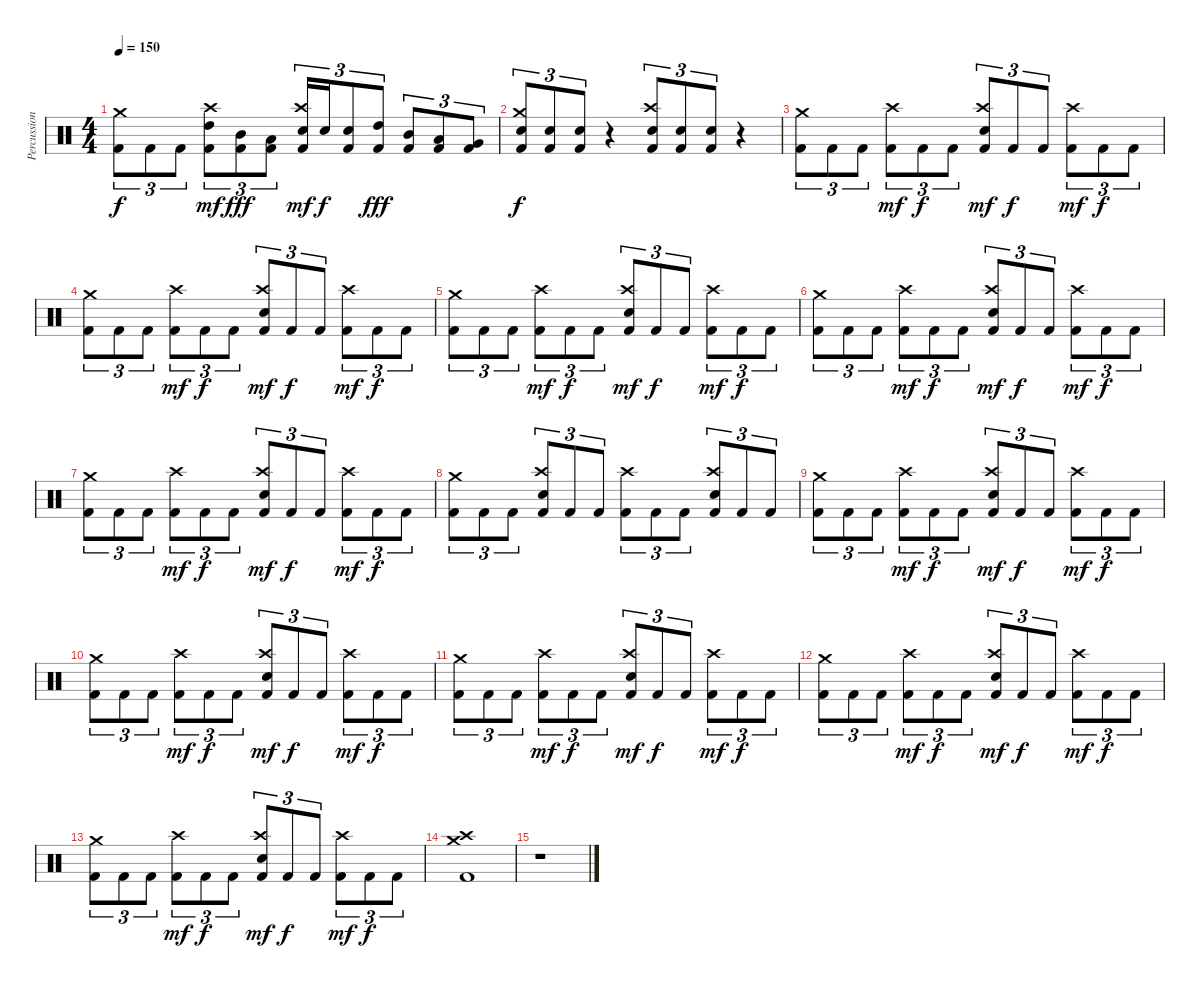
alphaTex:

\track ("Percussion" "Percussion") {instrument percussion}
\staff {score}
\articulation defaults
\ts (4 4)
\tempo 150
\clef neutral
\ks c
("Kick (hit) 2" "Crash medium (hit)").8{tu (3 2) dy f} "Kick (hit) 2".8{tu (3 2)} "Kick (hit) 2".8{tu (3 2)} ("Kick (hit) 2" "High Tom (hit)" "Crash high (hit)").8{tu (3 2) dy mf} ("Kick (hit) 2" "Mid Tom (hit)").8{tu (3 2) dy fff} ("Kick (hit) 2" "Low Tom (hit)").8{tu (3 2)} ("Kick (hit) 2" "Electric Snare (hit)" "Crash high (hit)").16{tu (3 2) dy mf} "Electric Snare (hit)".16{tu (3 2) dy f} ("Kick (hit) 2" "Electric Snare (hit)").8{tu (3 2)} ("Kick (hit) 2" "High Tom (hit)").8{tu (3 2) dy fff} ("Kick (hit) 2" "Mid Tom (hit)").8{tu (3 2)} ("Kick (hit) 2" "Low Tom (hit)").8{tu (3 2)} ("Kick (hit) 2" "Very Low Tom (hit)").8{tu (3 2)} |
("Kick (hit) 2" "Electric Snare (hit)" "Crash medium (hit)").8{tu (3 2) dy f} ("Kick (hit) 2" "Electric Snare (hit)").8{tu (3 2)} ("Kick (hit) 2" "Electric Snare (hit)").8{tu (3 2)} r.4 ("Kick (hit) 2" "Electric Snare (hit)" "Crash high (hit)").8{tu (3 2)} ("Kick (hit) 2" "Electric Snare (hit)").8{tu (3 2)} ("Kick (hit) 2" "Electric Snare (hit)").8{tu (3 2)} r.4 |
("Kick (hit) 2" "Crash medium (hit)").8{tu (3 2)} "Kick (hit) 2".8{tu (3 2)} "Kick (hit) 2".8{tu (3 2)} ("Kick (hit) 2" "Crash high (hit)").8{tu (3 2) dy mf} "Kick (hit) 2".8{tu (3 2) dy f} "Kick (hit) 2".8{tu (3 2)} ("Kick (hit) 2" "Electric Snare (hit)" "Crash high (hit)").8{tu (3 2) dy mf} "Kick (hit) 2".8{tu (3 2) dy f} "Kick (hit) 2".8{tu (3 2)} ("Kick (hit) 2" "Crash high (hit)").8{tu (3 2) dy mf} "Kick (hit) 2".8{tu (3 2) dy f} "Kick (hit) 2".8{tu (3 2)} |
("Kick (hit) 2" "Crash medium (hit)").8{tu (3 2)} "Kick (hit) 2".8{tu (3 2)} "Kick (hit) 2".8{tu (3 2)} ("Kick (hit) 2" "Crash high (hit)").8{tu (3 2) dy mf} "Kick (hit) 2".8{tu (3 2) dy f} "Kick (hit) 2".8{tu (3 2)} ("Kick (hit) 2" "Electric Snare (hit)" "Crash high (hit)").8{tu (3 2) dy mf} "Kick (hit) 2".8{tu (3 2) dy f} "Kick (hit) 2".8{tu (3 2)} ("Kick (hit) 2" "Crash high (hit)").8{tu (3 2) dy mf} "Kick (hit) 2".8{tu (3 2) dy f} "Kick (hit) 2".8{tu (3 2)} |
("Kick (hit) 2" "Crash medium (hit)").8{tu (3 2)} "Kick (hit) 2".8{tu (3 2)} "Kick (hit) 2".8{tu (3 2)} ("Kick (hit) 2" "Crash high (hit)").8{tu (3 2) dy mf} "Kick (hit) 2".8{tu (3 2) dy f} "Kick (hit) 2".8{tu (3 2)} ("Kick (hit) 2" "Electric Snare (hit)" "Crash high (hit)").8{tu (3 2) dy mf} "Kick (hit) 2".8{tu (3 2) dy f} "Kick (hit) 2".8{tu (3 2)} ("Kick (hit) 2" "Crash high (hit)").8{tu (3 2) dy mf} "Kick (hit) 2".8{tu (3 2) dy f} "Kick (hit) 2".8{tu (3 2)} |
("Kick (hit) 2" "Crash medium (hit)").8{tu (3 2)} "Kick (hit) 2".8{tu (3 2)} "Kick (hit) 2".8{tu (3 2)} ("Kick (hit) 2" "Crash high (hit)").8{tu (3 2) dy mf} "Kick (hit) 2".8{tu (3 2) dy f} "Kick (hit) 2".8{tu (3 2)} ("Kick (hit) 2" "Electric Snare (hit)" "Crash high (hit)").8{tu (3 2) dy mf} "Kick (hit) 2".8{tu (3 2) dy f} "Kick (hit) 2".8{tu (3 2)} ("Kick (hit) 2" "Crash high (hit)").8{tu (3 2) dy mf} "Kick (hit) 2".8{tu (3 2) dy f} "Kick (hit) 2".8{tu (3 2)} |
("Kick (hit) 2" "Crash medium (hit)").8{tu (3 2)} "Kick (hit) 2".8{tu (3 2)} "Kick (hit) 2".8{tu (3 2)} ("Kick (hit) 2" "Crash high (hit)").8{tu (3 2) dy mf} "Kick (hit) 2".8{tu (3 2) dy f} "Kick (hit) 2".8{tu (3 2)} ("Kick (hit) 2" "Electric Snare (hit)" "Crash high (hit)").8{tu (3 2) dy mf} "Kick (hit) 2".8{tu (3 2) dy f} "Kick (hit) 2".8{tu (3 2)} ("Kick (hit) 2" "Crash high (hit)").8{tu (3 2) dy mf} "Kick (hit) 2".8{tu (3 2) dy f} "Kick (hit) 2".8{tu (3 2)} |
("Kick (hit) 2" "Crash medium (hit)").8{tu (3 2)} "Kick (hit) 2".8{tu (3 2)} "Kick (hit) 2".8{tu (3 2)} ("Kick (hit) 2" "Electric Snare (hit)" "Crash high (hit)").8{tu (3 2)} "Kick (hit) 2".8{tu (3 2)} "Kick (hit) 2".8{tu (3 2)} ("Kick (hit) 2" "Crash high (hit)").8{tu (3 2)} "Kick (hit) 2".8{tu (3 2)} "Kick (hit) 2".8{tu (3 2)} ("Kick (hit) 2" "Electric Snare (hit)" "Crash high (hit)").8{tu (3 2)} "Kick (hit) 2".8{tu (3 2)} "Kick (hit) 2".8{tu (3 2)} |
("Kick (hit) 2" "Crash medium (hit)").8{tu (3 2)} "Kick (hit) 2".8{tu (3 2)} "Kick (hit) 2".8{tu (3 2)} ("Kick (hit) 2" "Crash high (hit)").8{tu (3 2) dy mf} "Kick (hit) 2".8{tu (3 2) dy f} "Kick (hit) 2".8{tu (3 2)} ("Kick (hit) 2" "Electric Snare (hit)" "Crash high (hit)").8{tu (3 2) dy mf} "Kick (hit) 2".8{tu (3 2) dy f} "Kick (hit) 2".8{tu (3 2)} ("Kick (hit) 2" "Crash high (hit)").8{tu (3 2) dy mf} "Kick (hit) 2".8{tu (3 2) dy f} "Kick (hit) 2".8{tu (3 2)} |
("Kick (hit) 2" "Crash medium (hit)").8{tu (3 2)} "Kick (hit) 2".8{tu (3 2)} "Kick (hit) 2".8{tu (3 2)} ("Kick (hit) 2" "Crash high (hit)").8{tu (3 2) dy mf} "Kick (hit) 2".8{tu (3 2) dy f} "Kick (hit) 2".8{tu (3 2)} ("Kick (hit) 2" "Electric Snare (hit)" "Crash high (hit)").8{tu (3 2) dy mf} "Kick (hit) 2".8{tu (3 2) dy f} "Kick (hit) 2".8{tu (3 2)} ("Kick (hit) 2" "Crash high (hit)").8{tu (3 2) dy mf} "Kick (hit) 2".8{tu (3 2) dy f} "Kick (hit) 2".8{tu (3 2)} |
("Kick (hit) 2" "Crash medium (hit)").8{tu (3 2)} "Kick (hit) 2".8{tu (3 2)} "Kick (hit) 2".8{tu (3 2)} ("Kick (hit) 2" "Crash high (hit)").8{tu (3 2) dy mf} "Kick (hit) 2".8{tu (3 2) dy f} "Kick (hit) 2".8{tu (3 2)} ("Kick (hit) 2" "Electric Snare (hit)" "Crash high (hit)").8{tu (3 2) dy mf} "Kick (hit) 2".8{tu (3 2) dy f} "Kick (hit) 2".8{tu (3 2)} ("Kick (hit) 2" "Crash high (hit)").8{tu (3 2) dy mf} "Kick (hit) 2".8{tu (3 2) dy f} "Kick (hit) 2".8{tu (3 2)} |
("Kick (hit) 2" "Crash medium (hit)").8{tu (3 2)} "Kick (hit) 2".8{tu (3 2)} "Kick (hit) 2".8{tu (3 2)} ("Kick (hit) 2" "Crash high (hit)").8{tu (3 2) dy mf} "Kick (hit) 2".8{tu (3 2) dy f} "Kick (hit) 2".8{tu (3 2)} ("Kick (hit) 2" "Electric Snare (hit)" "Crash high (hit)").8{tu (3 2) dy mf} "Kick (hit) 2".8{tu (3 2) dy f} "Kick (hit) 2".8{tu (3 2)} ("Kick (hit) 2" "Crash high (hit)").8{tu (3 2) dy mf} "Kick (hit) 2".8{tu (3 2) dy f} "Kick (hit) 2".8{tu (3 2)} |
("Kick (hit) 2" "Crash medium (hit)").8{tu (3 2)} "Kick (hit) 2".8{tu (3 2)} "Kick (hit) 2".8{tu (3 2)} ("Kick (hit) 2" "Crash high (hit)").8{tu (3 2) dy mf} "Kick (hit) 2".8{tu (3 2) dy f} "Kick (hit) 2".8{tu (3 2)} ("Kick (hit) 2" "Electric Snare (hit)" "Crash high (hit)").8{tu (3 2) dy mf} "Kick (hit) 2".8{tu (3 2) dy f} "Kick (hit) 2".8{tu (3 2)} ("Kick (hit) 2" "Crash high (hit)").8{tu (3 2) dy mf} "Kick (hit) 2".8{tu (3 2) dy f} "Kick (hit) 2".8{tu (3 2)} |
("Kick (hit) 2" "Crash medium (hit)" "Crash high (hit)").1 |
r.1
